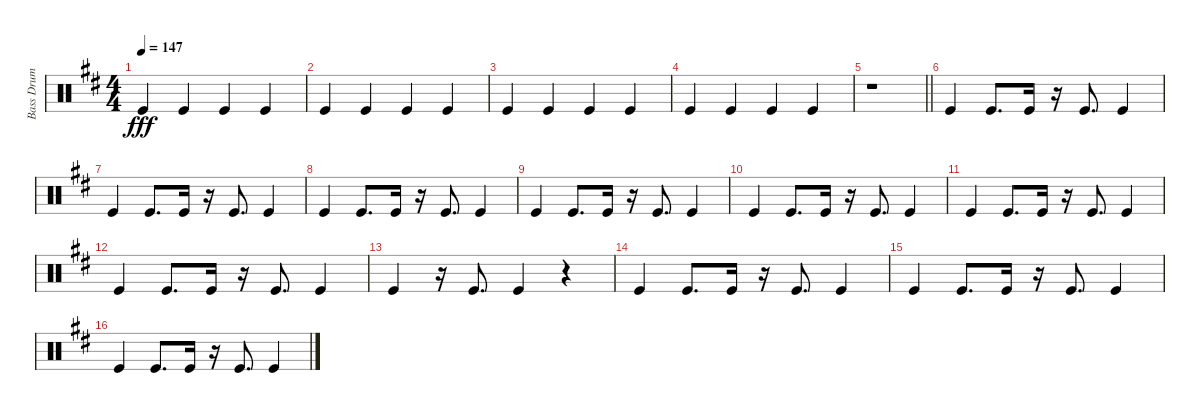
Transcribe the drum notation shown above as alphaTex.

\track ("Bass Drum" "Bass Drum") {instrument percussion}
\staff {score}
\articulation defaults
\ts (4 4)
\tempo 147
\clef neutral
\ks d "Kick (hit)".4{dy fff} "Kick (hit)".4 "Kick (hit)".4 "Kick (hit)".4
|
"Kick (hit)".4 "Kick (hit)".4 "Kick (hit)".4 "Kick (hit)".4 |
"Kick (hit)".4 "Kick (hit)".4 "Kick (hit)".4 "Kick (hit)".4 |
"Kick (hit)".4 "Kick (hit)".4 "Kick (hit)".4 "Kick (hit)".4 |
\barLineRight lightlight
r.1 |
"Kick (hit)".4 "Kick (hit)".8{d} "Kick (hit)".16 r.16 "Kick (hit)".8{d} "Kick (hit)".4 |
"Kick (hit)".4 "Kick (hit)".8{d} "Kick (hit)".16 r.16 "Kick (hit)".8{d} "Kick (hit)".4 |
"Kick (hit)".4 "Kick (hit)".8{d} "Kick (hit)".16 r.16 "Kick (hit)".8{d} "Kick (hit)".4 |
"Kick (hit)".4 "Kick (hit)".8{d} "Kick (hit)".16 r.16 "Kick (hit)".8{d} "Kick (hit)".4 |
"Kick (hit)".4 "Kick (hit)".8{d} "Kick (hit)".16 r.16 "Kick (hit)".8{d} "Kick (hit)".4 |
"Kick (hit)".4 "Kick (hit)".8{d} "Kick (hit)".16 r.16 "Kick (hit)".8{d} "Kick (hit)".4 |
"Kick (hit)".4 "Kick (hit)".8{d} "Kick (hit)".16 r.16 "Kick (hit)".8{d} "Kick (hit)".4 |
"Kick (hit)".4 r.16 "Kick (hit)".8{d} "Kick (hit)".4 r.4 |
"Kick (hit)".4 "Kick (hit)".8{d} "Kick (hit)".16 r.16 "Kick (hit)".8{d} "Kick (hit)".4 |
"Kick (hit)".4 "Kick (hit)".8{d} "Kick (hit)".16 r.16 "Kick (hit)".8{d} "Kick (hit)".4 |
"Kick (hit)".4 "Kick (hit)".8{d} "Kick (hit)".16 r.16 "Kick (hit)".8{d} "Kick (hit)".4
